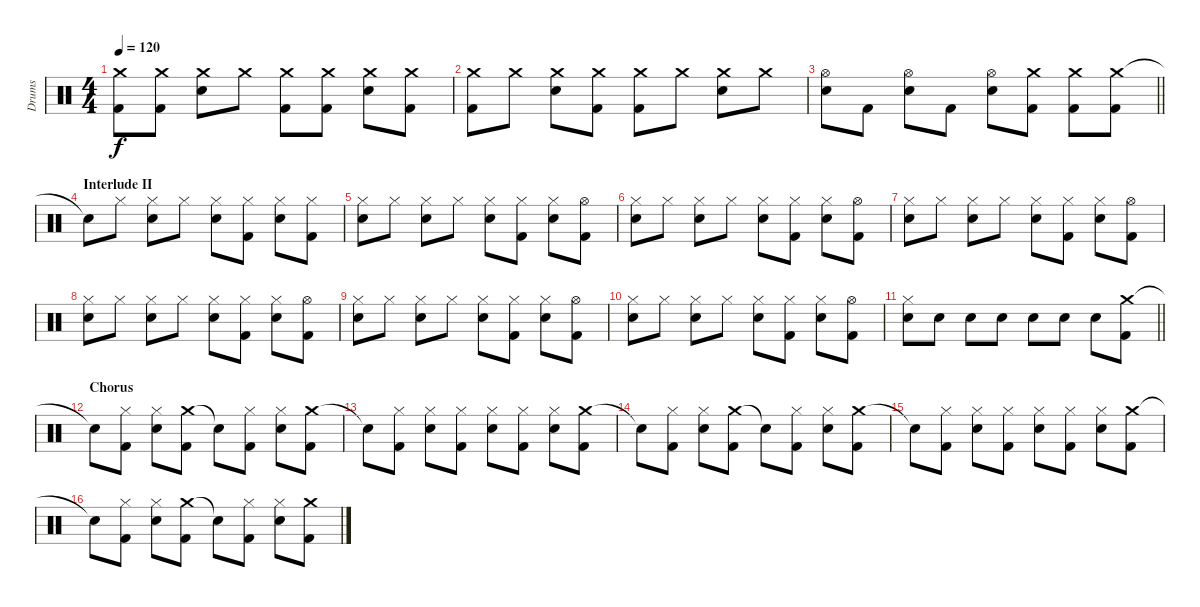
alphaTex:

\track ("Drums" "Drums") {instrument percussion}
\staff {score}
\articulation defaults
\ts (4 4)
\tempo 120
\clef neutral
\ks c
("Crash medium (hit)" "Kick (hit) 2").8{dy f} ("Crash medium (hit)" "Kick (hit) 2").8 ("Crash medium (hit)" "Snare (hit) 2").8 "Crash medium (hit)".8 ("Crash medium (hit)" "Kick (hit) 2").8 ("Crash medium (hit)" "Kick (hit) 2").8 ("Crash medium (hit)" "Snare (hit) 2").8 ("Crash medium (hit)" "Kick (hit) 2").8 |
("Crash medium (hit)" "Kick (hit) 2").8 "Crash medium (hit)".8 ("Crash medium (hit)" "Snare (hit) 2").8 ("Crash medium (hit)" "Kick (hit) 2").8 ("Crash medium (hit)" "Kick (hit) 2").8 "Crash medium (hit)".8 ("Crash medium (hit)" "Snare (hit) 2").8 "Crash medium (hit)".8 |
\barLineRight lightlight
("Hi-Hat (open)" "Snare (hit) 2").8 "Kick (hit) 2".8 ("Hi-Hat (open)" "Snare (hit) 2").8 "Kick (hit) 2".8 ("Hi-Hat (open)" "Snare (hit) 2").8 ("Crash medium (hit)" "Kick (hit) 2").8 ("Crash medium (hit)" "Kick (hit) 2").8 ("Crash medium (hit)" "Kick (hit) 2").8 |
\section ("" "Interlude II")
"Snare (hit)"{t}.8 "Hi-Hat (closed)".8 ("Hi-Hat (closed)" "Snare (hit) 2").8 "Hi-Hat (closed)".8 ("Hi-Hat (closed)" "Snare (hit) 2").8 ("Hi-Hat (closed)" "Kick (hit) 2").8 ("Hi-Hat (closed)" "Snare (hit) 2").8 ("Hi-Hat (closed)" "Kick (hit) 2").8 |
("Hi-Hat (closed)" "Snare (hit) 2").8 "Hi-Hat (closed)".8 ("Hi-Hat (closed)" "Snare (hit) 2").8 "Hi-Hat (closed)".8 ("Hi-Hat (closed)" "Snare (hit) 2").8 ("Hi-Hat (closed)" "Kick (hit) 2").8 ("Hi-Hat (closed)" "Snare (hit) 2").8 ("Hi-Hat (open)" "Kick (hit) 2").8 |
("Hi-Hat (closed)" "Snare (hit) 2").8 "Hi-Hat (closed)".8 ("Hi-Hat (closed)" "Snare (hit) 2").8 "Hi-Hat (closed)".8 ("Hi-Hat (closed)" "Snare (hit) 2").8 ("Hi-Hat (closed)" "Kick (hit) 2").8 ("Hi-Hat (closed)" "Snare (hit) 2").8 ("Hi-Hat (open)" "Kick (hit) 2").8 |
("Hi-Hat (closed)" "Snare (hit) 2").8 "Hi-Hat (closed)".8 ("Hi-Hat (closed)" "Snare (hit) 2").8 "Hi-Hat (closed)".8 ("Hi-Hat (closed)" "Snare (hit) 2").8 ("Hi-Hat (closed)" "Kick (hit) 2").8 ("Hi-Hat (closed)" "Snare (hit) 2").8 ("Hi-Hat (open)" "Kick (hit) 2").8 |
("Hi-Hat (closed)" "Snare (hit) 2").8 "Hi-Hat (closed)".8 ("Hi-Hat (closed)" "Snare (hit) 2").8 "Hi-Hat (closed)".8 ("Hi-Hat (closed)" "Snare (hit) 2").8 ("Hi-Hat (closed)" "Kick (hit) 2").8 ("Hi-Hat (closed)" "Snare (hit) 2").8 ("Hi-Hat (open)" "Kick (hit) 2").8 |
("Hi-Hat (closed)" "Snare (hit) 2").8 "Hi-Hat (closed)".8 ("Hi-Hat (closed)" "Snare (hit) 2").8 "Hi-Hat (closed)".8 ("Hi-Hat (closed)" "Snare (hit) 2").8 ("Hi-Hat (closed)" "Kick (hit) 2").8 ("Hi-Hat (closed)" "Snare (hit) 2").8 ("Hi-Hat (open)" "Kick (hit) 2").8 |
("Hi-Hat (closed)" "Snare (hit) 2").8 "Hi-Hat (closed)".8 ("Hi-Hat (closed)" "Snare (hit) 2").8 "Hi-Hat (closed)".8 ("Hi-Hat (closed)" "Snare (hit) 2").8 ("Hi-Hat (closed)" "Kick (hit) 2").8 ("Hi-Hat (closed)" "Snare (hit) 2").8 ("Hi-Hat (open)" "Kick (hit) 2").8 |
\barLineRight lightlight
("Hi-Hat (closed)" "Snare (hit) 2").8 "Snare (hit) 2".8 "Snare (hit) 2".8 "Snare (hit) 2".8 "Snare (hit) 2".8 "Snare (hit) 2".8 "Snare (hit) 2".8 ("Crash medium (hit)" "Kick (hit) 2").8 |
\section ("" "Chorus")
"Snare (hit)"{t}.8 ("Hi-Hat (closed)" "Kick (hit) 2").8 ("Hi-Hat (closed)" "Snare (hit) 2").8 ("Crash medium (hit)" "Kick (hit) 2").8 "Snare (hit)"{t}.8 ("Hi-Hat (closed)" "Kick (hit) 2").8 ("Hi-Hat (closed)" "Snare (hit) 2").8 ("Crash medium (hit)" "Kick (hit) 2").8 |
"Snare (hit)"{t}.8 ("Hi-Hat (closed)" "Kick (hit) 2").8 ("Hi-Hat (closed)" "Snare (hit) 2").8 ("Hi-Hat (closed)" "Kick (hit) 2").8 ("Hi-Hat (closed)" "Snare (hit) 2").8 ("Hi-Hat (closed)" "Kick (hit) 2").8 ("Hi-Hat (closed)" "Snare (hit) 2").8 ("Crash medium (hit)" "Kick (hit) 2").8 |
"Snare (hit)"{t}.8 ("Hi-Hat (closed)" "Kick (hit) 2").8 ("Hi-Hat (closed)" "Snare (hit) 2").8 ("Crash medium (hit)" "Kick (hit) 2").8 "Snare (hit)"{t}.8 ("Hi-Hat (closed)" "Kick (hit) 2").8 ("Hi-Hat (closed)" "Snare (hit) 2").8 ("Crash medium (hit)" "Kick (hit) 2").8 |
"Snare (hit)"{t}.8 ("Hi-Hat (closed)" "Kick (hit) 2").8 ("Hi-Hat (closed)" "Snare (hit) 2").8 ("Hi-Hat (closed)" "Kick (hit) 2").8 ("Hi-Hat (closed)" "Snare (hit) 2").8 ("Hi-Hat (closed)" "Kick (hit) 2").8 ("Hi-Hat (closed)" "Snare (hit) 2").8 ("Crash medium (hit)" "Kick (hit) 2").8 |
"Snare (hit)"{t}.8 ("Hi-Hat (closed)" "Kick (hit) 2").8 ("Hi-Hat (closed)" "Snare (hit) 2").8 ("Crash medium (hit)" "Kick (hit) 2").8 "Snare (hit)"{t}.8 ("Hi-Hat (closed)" "Kick (hit) 2").8 ("Hi-Hat (closed)" "Snare (hit) 2").8 ("Crash medium (hit)" "Kick (hit) 2").8
